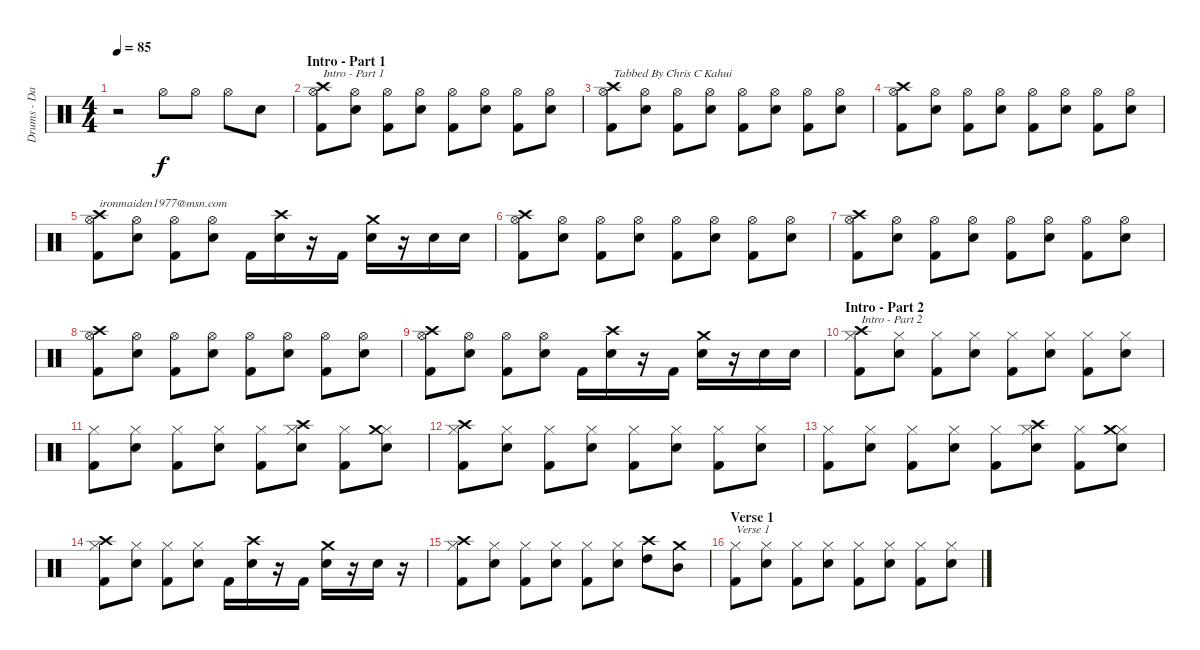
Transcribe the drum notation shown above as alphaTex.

\track ("Drums - Daniel Zimmermann" "Drums - Da") {instrument percussion}
\staff {score}
\articulation defaults
\ts (4 4)
\tempo 85
\clef neutral
\ks c
r.2{dy f} "Hi-Hat (open)".8 "Hi-Hat (open)".8 "Hi-Hat (open)".8 "Snare (hit) 2".8 |
\section ("" "Intro - Part 1")
("Hi-Hat (open)" "Kick (hit) 2" "Crash high (hit)").8{txt "Intro - Part 1"} ("Hi-Hat (open)" "Snare (hit) 2").8 ("Hi-Hat (open)" "Kick (hit) 2").8 ("Hi-Hat (open)" "Snare (hit) 2").8 ("Hi-Hat (open)" "Kick (hit) 2").8 ("Hi-Hat (open)" "Snare (hit) 2").8 ("Hi-Hat (open)" "Kick (hit) 2").8 ("Hi-Hat (open)" "Snare (hit) 2").8 |
("Hi-Hat (open)" "Kick (hit) 2" "Crash high (hit)").8{txt "Tabbed By Chris C Kahui"} ("Hi-Hat (open)" "Snare (hit) 2").8 ("Hi-Hat (open)" "Kick (hit) 2").8 ("Hi-Hat (open)" "Snare (hit) 2").8 ("Hi-Hat (open)" "Kick (hit) 2").8 ("Hi-Hat (open)" "Snare (hit) 2").8 ("Hi-Hat (open)" "Kick (hit) 2").8 ("Hi-Hat (open)" "Snare (hit) 2").8 |
("Hi-Hat (open)" "Kick (hit) 2" "Crash high (hit)").8 ("Hi-Hat (open)" "Snare (hit) 2").8 ("Hi-Hat (open)" "Kick (hit) 2").8 ("Hi-Hat (open)" "Snare (hit) 2").8 ("Hi-Hat (open)" "Kick (hit) 2").8 ("Hi-Hat (open)" "Snare (hit) 2").8 ("Hi-Hat (open)" "Kick (hit) 2").8 ("Hi-Hat (open)" "Snare (hit) 2").8 |
("Hi-Hat (open)" "Kick (hit) 2" "Crash high (hit)").8{txt "ironmaiden1977@msn.com"} ("Hi-Hat (open)" "Snare (hit) 2").8 ("Hi-Hat (open)" "Kick (hit) 2").8 ("Hi-Hat (open)" "Snare (hit) 2").8 "Kick (hit) 2".16 ("Snare (hit) 2" "Crash high (hit)").16 r.16 "Kick (hit) 2".16 ("Snare (hit) 2" "Crash medium (hit)").16 r.16 "Snare (hit) 2".16 "Snare (hit) 2".16 |
("Hi-Hat (open)" "Kick (hit) 2" "Crash high (hit)").8 ("Hi-Hat (open)" "Snare (hit) 2").8 ("Hi-Hat (open)" "Kick (hit) 2").8 ("Hi-Hat (open)" "Snare (hit) 2").8 ("Hi-Hat (open)" "Kick (hit) 2").8 ("Hi-Hat (open)" "Snare (hit) 2").8 ("Hi-Hat (open)" "Kick (hit) 2").8 ("Hi-Hat (open)" "Snare (hit) 2").8 |
("Hi-Hat (open)" "Kick (hit) 2" "Crash high (hit)").8 ("Hi-Hat (open)" "Snare (hit) 2").8 ("Hi-Hat (open)" "Kick (hit) 2").8 ("Hi-Hat (open)" "Snare (hit) 2").8 ("Hi-Hat (open)" "Kick (hit) 2").8 ("Hi-Hat (open)" "Snare (hit) 2").8 ("Hi-Hat (open)" "Kick (hit) 2").8 ("Hi-Hat (open)" "Snare (hit) 2").8 |
("Hi-Hat (open)" "Kick (hit) 2" "Crash high (hit)").8 ("Hi-Hat (open)" "Snare (hit) 2").8 ("Hi-Hat (open)" "Kick (hit) 2").8 ("Hi-Hat (open)" "Snare (hit) 2").8 ("Hi-Hat (open)" "Kick (hit) 2").8 ("Hi-Hat (open)" "Snare (hit) 2").8 ("Hi-Hat (open)" "Kick (hit) 2").8 ("Hi-Hat (open)" "Snare (hit) 2").8 |
("Hi-Hat (open)" "Kick (hit) 2" "Crash high (hit)").8 ("Hi-Hat (open)" "Snare (hit) 2").8 ("Hi-Hat (open)" "Kick (hit) 2").8 ("Hi-Hat (open)" "Snare (hit) 2").8 "Kick (hit) 2".16 ("Snare (hit) 2" "Crash high (hit)").16 r.16 "Kick (hit) 2".16 ("Snare (hit) 2" "Crash medium (hit)").16 r.16 "Snare (hit) 2".16 "Snare (hit) 2".16 |
\section ("" "Intro - Part 2")
("Hi-Hat (closed)" "Kick (hit) 2" "Crash high (hit)").8{txt "Intro - Part 2"} ("Hi-Hat (closed)" "Snare (hit) 2").8 ("Hi-Hat (closed)" "Kick (hit) 2").8 ("Hi-Hat (closed)" "Snare (hit) 2").8 ("Hi-Hat (closed)" "Kick (hit) 2").8 ("Hi-Hat (closed)" "Snare (hit) 2").8 ("Hi-Hat (closed)" "Kick (hit) 2").8 ("Hi-Hat (closed)" "Snare (hit) 2").8 |
("Hi-Hat (closed)" "Kick (hit) 2").8 ("Hi-Hat (closed)" "Snare (hit) 2").8 ("Hi-Hat (closed)" "Kick (hit) 2").8 ("Hi-Hat (closed)" "Snare (hit) 2").8 ("Hi-Hat (closed)" "Kick (hit) 2").8 ("Hi-Hat (closed)" "Snare (hit) 2" "Crash high (hit)").8 ("Hi-Hat (closed)" "Kick (hit) 2").8 ("Hi-Hat (closed)" "Snare (hit) 2" "Crash medium (hit)").8 |
("Hi-Hat (closed)" "Kick (hit) 2" "Crash high (hit)").8 ("Hi-Hat (closed)" "Snare (hit) 2").8 ("Hi-Hat (closed)" "Kick (hit) 2").8 ("Hi-Hat (closed)" "Snare (hit) 2").8 ("Hi-Hat (closed)" "Kick (hit) 2").8 ("Hi-Hat (closed)" "Snare (hit) 2").8 ("Hi-Hat (closed)" "Kick (hit) 2").8 ("Hi-Hat (closed)" "Snare (hit) 2").8 |
("Hi-Hat (closed)" "Kick (hit) 2").8 ("Hi-Hat (closed)" "Snare (hit) 2").8 ("Hi-Hat (closed)" "Kick (hit) 2").8 ("Hi-Hat (closed)" "Snare (hit) 2").8 ("Hi-Hat (closed)" "Kick (hit) 2").8 ("Hi-Hat (closed)" "Snare (hit) 2" "Crash high (hit)").8 ("Hi-Hat (closed)" "Kick (hit) 2").8 ("Hi-Hat (closed)" "Snare (hit) 2" "Crash medium (hit)").8 |
("Hi-Hat (closed)" "Kick (hit) 2" "Crash high (hit)").8 ("Hi-Hat (closed)" "Snare (hit) 2").8 ("Hi-Hat (closed)" "Kick (hit) 2").8 ("Hi-Hat (closed)" "Snare (hit) 2").8 "Kick (hit) 2".16 ("Snare (hit) 2" "Crash high (hit)").16 r.16 "Kick (hit) 2".16 ("Snare (hit) 2" "Crash medium (hit)").16 r.16 "Snare (hit) 2".16 r.16 |
("Hi-Hat (closed)" "Kick (hit) 2" "Crash high (hit)").8 ("Hi-Hat (closed)" "Snare (hit) 2").8 ("Hi-Hat (closed)" "Kick (hit) 2").8 ("Hi-Hat (closed)" "Snare (hit) 2").8 ("Hi-Hat (closed)" "Kick (hit) 2").8 ("Hi-Hat (closed)" "Snare (hit) 2").8 ("High Tom (hit)" "Crash high (hit)").8 ("Mid Tom (hit)" "Crash medium (hit)").8 |
\section ("" "Verse 1")
("Hi-Hat (closed)" "Kick (hit) 2").8{txt "Verse 1"} ("Hi-Hat (closed)" "Snare (hit) 2").8 ("Hi-Hat (closed)" "Kick (hit) 2").8 ("Hi-Hat (closed)" "Snare (hit) 2").8 ("Hi-Hat (closed)" "Kick (hit) 2").8 ("Hi-Hat (closed)" "Snare (hit) 2").8 ("Hi-Hat (closed)" "Kick (hit) 2").8 ("Hi-Hat (closed)" "Snare (hit) 2").8
